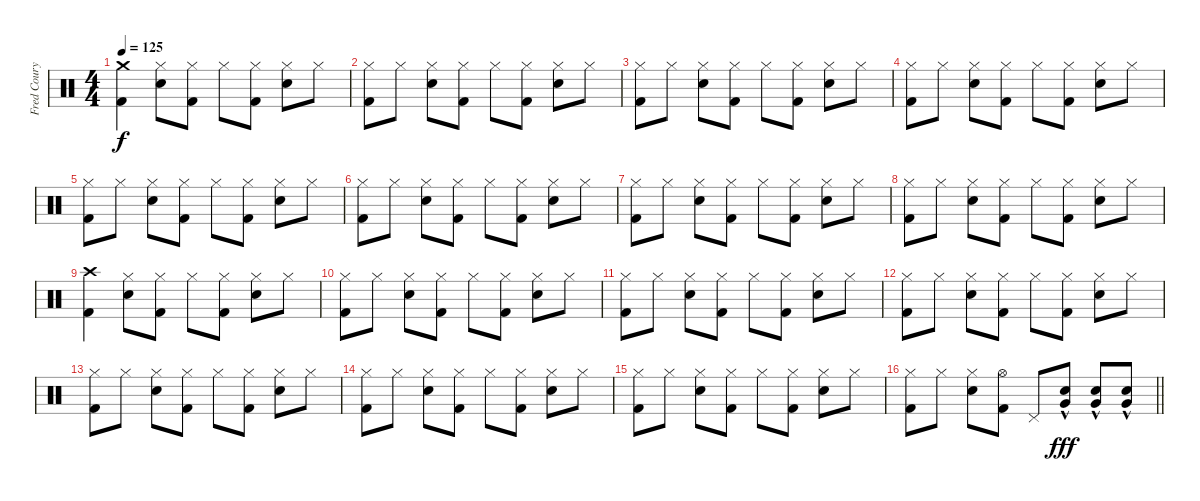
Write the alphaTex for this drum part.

\track ("Fred Coury - Drums" "Fred Coury") {instrument percussion}
\staff {score}
\articulation defaults
\ts (4 4)
\tempo 125
\clef neutral
\ks c
("Crash medium (hit)" "Kick (hit) 2").4{dy f} ("Hi-Hat (closed)" "Snare (hit) 2").8 ("Hi-Hat (closed)" "Kick (hit) 2").8 "Hi-Hat (closed)".8 ("Hi-Hat (closed)" "Kick (hit) 2").8 ("Hi-Hat (closed)" "Snare (hit) 2").8 "Hi-Hat (closed)".8 |
("Hi-Hat (closed)" "Kick (hit) 2").8 "Hi-Hat (closed)".8 ("Hi-Hat (closed)" "Snare (hit) 2").8 ("Hi-Hat (closed)" "Kick (hit) 2").8 "Hi-Hat (closed)".8 ("Hi-Hat (closed)" "Kick (hit) 2").8 ("Hi-Hat (closed)" "Snare (hit) 2").8 "Hi-Hat (closed)".8 |
("Hi-Hat (closed)" "Kick (hit) 2").8 "Hi-Hat (closed)".8 ("Hi-Hat (closed)" "Snare (hit) 2").8 ("Hi-Hat (closed)" "Kick (hit) 2").8 "Hi-Hat (closed)".8 ("Hi-Hat (closed)" "Kick (hit) 2").8 ("Hi-Hat (closed)" "Snare (hit) 2").8 "Hi-Hat (closed)".8 |
("Hi-Hat (closed)" "Kick (hit) 2").8 "Hi-Hat (closed)".8 ("Hi-Hat (closed)" "Snare (hit) 2").8 ("Hi-Hat (closed)" "Kick (hit) 2").8 "Hi-Hat (closed)".8 ("Hi-Hat (closed)" "Kick (hit) 2").8 ("Hi-Hat (closed)" "Snare (hit) 2").8 "Hi-Hat (closed)".8 |
("Hi-Hat (closed)" "Kick (hit) 2").8 "Hi-Hat (closed)".8 ("Hi-Hat (closed)" "Snare (hit) 2").8 ("Hi-Hat (closed)" "Kick (hit) 2").8 "Hi-Hat (closed)".8 ("Hi-Hat (closed)" "Kick (hit) 2").8 ("Hi-Hat (closed)" "Snare (hit) 2").8 "Hi-Hat (closed)".8 |
("Hi-Hat (closed)" "Kick (hit) 2").8 "Hi-Hat (closed)".8 ("Hi-Hat (closed)" "Snare (hit) 2").8 ("Hi-Hat (closed)" "Kick (hit) 2").8 "Hi-Hat (closed)".8 ("Hi-Hat (closed)" "Kick (hit) 2").8 ("Hi-Hat (closed)" "Snare (hit) 2").8 "Hi-Hat (closed)".8 |
("Hi-Hat (closed)" "Kick (hit) 2").8 "Hi-Hat (closed)".8 ("Hi-Hat (closed)" "Snare (hit) 2").8 ("Hi-Hat (closed)" "Kick (hit) 2").8 "Hi-Hat (closed)".8 ("Hi-Hat (closed)" "Kick (hit) 2").8 ("Hi-Hat (closed)" "Snare (hit) 2").8 "Hi-Hat (closed)".8 |
("Hi-Hat (closed)" "Kick (hit) 2").8 "Hi-Hat (closed)".8 ("Hi-Hat (closed)" "Snare (hit) 2").8 ("Hi-Hat (closed)" "Kick (hit) 2").8 "Hi-Hat (closed)".8 ("Hi-Hat (closed)" "Kick (hit) 2").8 ("Hi-Hat (closed)" "Snare (hit) 2").8 "Hi-Hat (closed)".8 |
("Crash high (hit)" "Kick (hit) 2").4 ("Hi-Hat (closed)" "Snare (hit) 2").8 ("Hi-Hat (closed)" "Kick (hit) 2").8 "Hi-Hat (closed)".8 ("Hi-Hat (closed)" "Kick (hit) 2").8 ("Hi-Hat (closed)" "Snare (hit) 2").8 "Hi-Hat (closed)".8 |
("Hi-Hat (closed)" "Kick (hit) 2").8 "Hi-Hat (closed)".8 ("Hi-Hat (closed)" "Snare (hit) 2").8 ("Hi-Hat (closed)" "Kick (hit) 2").8 "Hi-Hat (closed)".8 ("Hi-Hat (closed)" "Kick (hit) 2").8 ("Hi-Hat (closed)" "Snare (hit) 2").8 "Hi-Hat (closed)".8 |
("Hi-Hat (closed)" "Kick (hit) 2").8 "Hi-Hat (closed)".8 ("Hi-Hat (closed)" "Snare (hit) 2").8 ("Hi-Hat (closed)" "Kick (hit) 2").8 "Hi-Hat (closed)".8 ("Hi-Hat (closed)" "Kick (hit) 2").8 ("Hi-Hat (closed)" "Snare (hit) 2").8 "Hi-Hat (closed)".8 |
("Hi-Hat (closed)" "Kick (hit) 2").8 "Hi-Hat (closed)".8 ("Hi-Hat (closed)" "Snare (hit) 2").8 ("Hi-Hat (closed)" "Kick (hit) 2").8 "Hi-Hat (closed)".8 ("Hi-Hat (closed)" "Kick (hit) 2").8 ("Hi-Hat (closed)" "Snare (hit) 2").8 "Hi-Hat (closed)".8 |
("Hi-Hat (closed)" "Kick (hit) 2").8 "Hi-Hat (closed)".8 ("Hi-Hat (closed)" "Snare (hit) 2").8 ("Hi-Hat (closed)" "Kick (hit) 2").8 "Hi-Hat (closed)".8 ("Hi-Hat (closed)" "Kick (hit) 2").8 ("Hi-Hat (closed)" "Snare (hit) 2").8 "Hi-Hat (closed)".8 |
("Hi-Hat (closed)" "Kick (hit) 2").8 "Hi-Hat (closed)".8 ("Hi-Hat (closed)" "Snare (hit) 2").8 ("Hi-Hat (closed)" "Kick (hit) 2").8 "Hi-Hat (closed)".8 ("Hi-Hat (closed)" "Kick (hit) 2").8 ("Hi-Hat (closed)" "Snare (hit) 2").8 "Hi-Hat (closed)".8 |
("Hi-Hat (closed)" "Kick (hit) 2").8 "Hi-Hat (closed)".8 ("Hi-Hat (closed)" "Snare (hit) 2").8 ("Hi-Hat (closed)" "Kick (hit) 2").8 "Hi-Hat (closed)".8 ("Hi-Hat (closed)" "Kick (hit) 2").8 ("Hi-Hat (closed)" "Snare (hit) 2").8 "Hi-Hat (closed)".8 |
\barLineRight lightlight
("Hi-Hat (closed)" "Kick (hit) 2").8 "Hi-Hat (closed)".8 ("Hi-Hat (closed)" "Snare (hit) 2").8 ("Hi-Hat (open)" "Kick (hit) 2").8 "Pedal Hi-Hat (hit)".8 ("Very Low Tom (hit)"{hac} "Snare (hit) 2").8{dy fff} ("Very Low Tom (hit)"{hac} "Snare (hit) 2").8 ("Very Low Tom (hit)"{hac} "Snare (hit) 2").8
